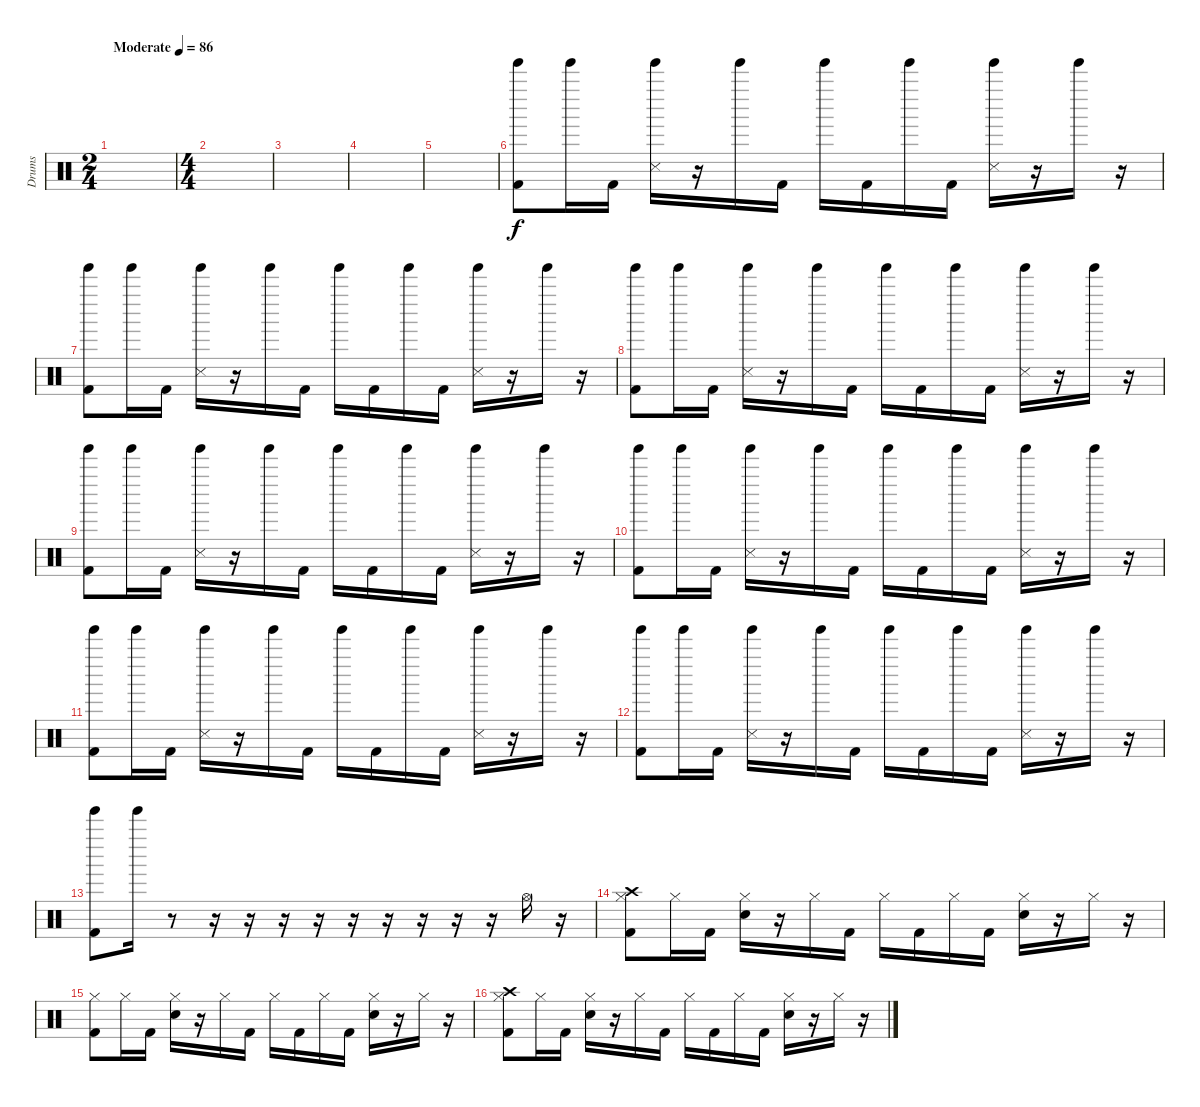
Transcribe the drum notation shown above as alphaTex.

\track ("Drums" "Drums") {instrument percussion}
\staff {score}
\articulation defaults
\ts (2 4)
\tempo (86 "Moderate")
\clef neutral
\ks c
|
\ts (4 4)
|
|
|
|
("Kick (hit) 2" "Tinkle Bell (hit)").8 "Tinkle Bell (hit)".16 "Kick (hit) 2".16 ("Snare (side stick) 3" "Tinkle Bell (hit)").16 r.16 "Tinkle Bell (hit)".16 "Kick (hit) 2".16 "Tinkle Bell (hit)".16 "Kick (hit) 2".16 "Tinkle Bell (hit)".16 "Kick (hit) 2".16 ("Snare (side stick) 3" "Tinkle Bell (hit)").16 r.16 "Tinkle Bell (hit)".16 r.16 |
("Kick (hit) 2" "Tinkle Bell (hit)").8 "Tinkle Bell (hit)".16 "Kick (hit) 2".16 ("Snare (side stick) 3" "Tinkle Bell (hit)").16 r.16 "Tinkle Bell (hit)".16 "Kick (hit) 2".16 "Tinkle Bell (hit)".16 "Kick (hit) 2".16 "Tinkle Bell (hit)".16 "Kick (hit) 2".16 ("Snare (side stick) 3" "Tinkle Bell (hit)").16 r.16 "Tinkle Bell (hit)".16 r.16 |
("Kick (hit) 2" "Tinkle Bell (hit)").8 "Tinkle Bell (hit)".16 "Kick (hit) 2".16 ("Snare (side stick) 3" "Tinkle Bell (hit)").16 r.16 "Tinkle Bell (hit)".16 "Kick (hit) 2".16 "Tinkle Bell (hit)".16 "Kick (hit) 2".16 "Tinkle Bell (hit)".16 "Kick (hit) 2".16 ("Snare (side stick) 3" "Tinkle Bell (hit)").16 r.16 "Tinkle Bell (hit)".16 r.16 |
("Kick (hit) 2" "Tinkle Bell (hit)").8 "Tinkle Bell (hit)".16 "Kick (hit) 2".16 ("Snare (side stick) 3" "Tinkle Bell (hit)").16 r.16 "Tinkle Bell (hit)".16 "Kick (hit) 2".16 "Tinkle Bell (hit)".16 "Kick (hit) 2".16 "Tinkle Bell (hit)".16 "Kick (hit) 2".16 ("Snare (side stick) 3" "Tinkle Bell (hit)").16 r.16 "Tinkle Bell (hit)".16 r.16 |
("Kick (hit) 2" "Tinkle Bell (hit)").8 "Tinkle Bell (hit)".16 "Kick (hit) 2".16 ("Snare (side stick) 3" "Tinkle Bell (hit)").16 r.16 "Tinkle Bell (hit)".16 "Kick (hit) 2".16 "Tinkle Bell (hit)".16 "Kick (hit) 2".16 "Tinkle Bell (hit)".16 "Kick (hit) 2".16 ("Snare (side stick) 3" "Tinkle Bell (hit)").16 r.16 "Tinkle Bell (hit)".16 r.16 |
("Kick (hit) 2" "Tinkle Bell (hit)").8 "Tinkle Bell (hit)".16 "Kick (hit) 2".16 ("Snare (side stick) 3" "Tinkle Bell (hit)").16 r.16 "Tinkle Bell (hit)".16 "Kick (hit) 2".16 "Tinkle Bell (hit)".16 "Kick (hit) 2".16 "Tinkle Bell (hit)".16 "Kick (hit) 2".16 ("Snare (side stick) 3" "Tinkle Bell (hit)").16 r.16 "Tinkle Bell (hit)".16 r.16 |
("Kick (hit) 2" "Tinkle Bell (hit)").8 "Tinkle Bell (hit)".16 "Kick (hit) 2".16 ("Snare (side stick) 3" "Tinkle Bell (hit)").16 r.16 "Tinkle Bell (hit)".16 "Kick (hit) 2".16 "Tinkle Bell (hit)".16 "Kick (hit) 2".16 "Tinkle Bell (hit)".16 "Kick (hit) 2".16 ("Snare (side stick) 3" "Tinkle Bell (hit)").16 r.16 "Tinkle Bell (hit)".16 r.16 |
("Kick (hit) 2" "Tinkle Bell (hit)").8 "Tinkle Bell (hit)".16 r.8 r.16 r.16 r.16 r.16 r.16 r.16 r.16 r.16 r.16 "Hi-Hat (open)".16 r.16 |
("Kick (hit) 2" "Hi-Hat (closed)" "Crash high (hit)").8 "Hi-Hat (closed)".16 "Kick (hit) 2".16 ("Snare (hit) 2" "Hi-Hat (closed)").16 r.16 "Hi-Hat (closed)".16 "Kick (hit) 2".16 "Hi-Hat (closed)".16 "Kick (hit) 2".16 "Hi-Hat (closed)".16 "Kick (hit) 2".16 ("Snare (hit) 2" "Hi-Hat (closed)").16 r.16 "Hi-Hat (closed)".16 r.16 |
("Kick (hit) 2" "Hi-Hat (closed)").8 "Hi-Hat (closed)".16 "Kick (hit) 2".16 ("Snare (hit) 2" "Hi-Hat (closed)").16 r.16 "Hi-Hat (closed)".16 "Kick (hit) 2".16 "Hi-Hat (closed)".16 "Kick (hit) 2".16 "Hi-Hat (closed)".16 "Kick (hit) 2".16 ("Snare (hit) 2" "Hi-Hat (closed)").16 r.16 "Hi-Hat (closed)".16 r.16 |
("Kick (hit) 2" "Hi-Hat (closed)" "Crash high (hit)").8 "Hi-Hat (closed)".16 "Kick (hit) 2".16 ("Snare (hit) 2" "Hi-Hat (closed)").16 r.16 "Hi-Hat (closed)".16 "Kick (hit) 2".16 "Hi-Hat (closed)".16 "Kick (hit) 2".16 "Hi-Hat (closed)".16 "Kick (hit) 2".16 ("Snare (hit) 2" "Hi-Hat (closed)").16 r.16 "Hi-Hat (closed)".16 r.16
